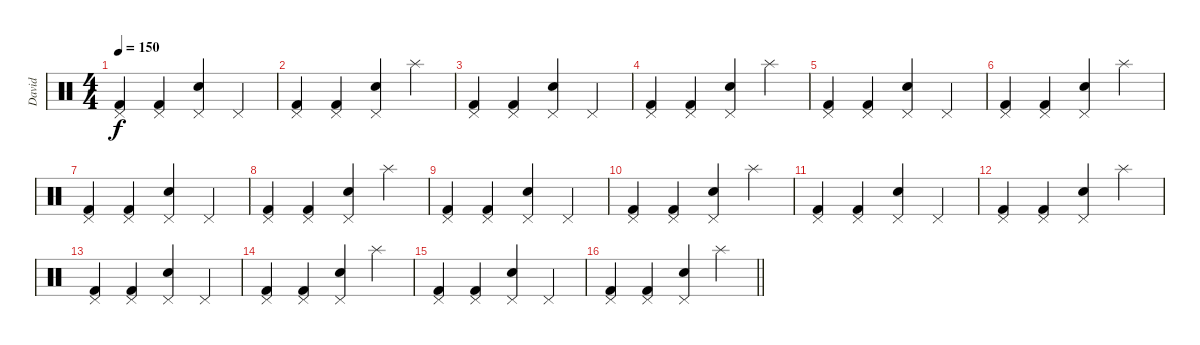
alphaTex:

\track ("David" "David") {instrument percussion}
\staff {score}
\articulation defaults
\ts (4 4)
\tempo 150
\clef neutral
\ks c
("Pedal Hi-Hat (hit)" "Kick (hit) 2").4{dy f} ("Pedal Hi-Hat (hit)" "Kick (hit) 2").4 ("Pedal Hi-Hat (hit)" "Hand Clap (hit)").4 "Pedal Hi-Hat (hit)".4 |
("Pedal Hi-Hat (hit)" "Kick (hit) 2").4 ("Pedal Hi-Hat (hit)" "Kick (hit) 2").4 ("Pedal Hi-Hat (hit)" "Hand Clap (hit)").4 "Splash (hit)".4 |
("Pedal Hi-Hat (hit)" "Kick (hit) 2").4 ("Pedal Hi-Hat (hit)" "Kick (hit) 2").4 ("Pedal Hi-Hat (hit)" "Hand Clap (hit)").4 "Pedal Hi-Hat (hit)".4 |
("Pedal Hi-Hat (hit)" "Kick (hit) 2").4 ("Pedal Hi-Hat (hit)" "Kick (hit) 2").4 ("Pedal Hi-Hat (hit)" "Hand Clap (hit)").4 "Splash (hit)".4 |
("Pedal Hi-Hat (hit)" "Kick (hit) 2").4 ("Pedal Hi-Hat (hit)" "Kick (hit) 2").4 ("Pedal Hi-Hat (hit)" "Hand Clap (hit)").4 "Pedal Hi-Hat (hit)".4 |
("Pedal Hi-Hat (hit)" "Kick (hit) 2").4 ("Pedal Hi-Hat (hit)" "Kick (hit) 2").4 ("Pedal Hi-Hat (hit)" "Hand Clap (hit)").4 "Splash (hit)".4 |
("Pedal Hi-Hat (hit)" "Kick (hit) 2").4 ("Pedal Hi-Hat (hit)" "Kick (hit) 2").4 ("Pedal Hi-Hat (hit)" "Hand Clap (hit)").4 "Pedal Hi-Hat (hit)".4 |
("Pedal Hi-Hat (hit)" "Kick (hit) 2").4 ("Pedal Hi-Hat (hit)" "Kick (hit) 2").4 ("Pedal Hi-Hat (hit)" "Hand Clap (hit)").4 "Splash (hit)".4 |
("Pedal Hi-Hat (hit)" "Kick (hit) 2").4 ("Pedal Hi-Hat (hit)" "Kick (hit) 2").4 ("Pedal Hi-Hat (hit)" "Hand Clap (hit)").4 "Pedal Hi-Hat (hit)".4 |
("Pedal Hi-Hat (hit)" "Kick (hit) 2").4 ("Pedal Hi-Hat (hit)" "Kick (hit) 2").4 ("Pedal Hi-Hat (hit)" "Hand Clap (hit)").4 "Splash (hit)".4 |
("Pedal Hi-Hat (hit)" "Kick (hit) 2").4 ("Pedal Hi-Hat (hit)" "Kick (hit) 2").4 ("Pedal Hi-Hat (hit)" "Hand Clap (hit)").4 "Pedal Hi-Hat (hit)".4 |
("Pedal Hi-Hat (hit)" "Kick (hit) 2").4 ("Pedal Hi-Hat (hit)" "Kick (hit) 2").4 ("Pedal Hi-Hat (hit)" "Hand Clap (hit)").4 "Splash (hit)".4 |
("Pedal Hi-Hat (hit)" "Kick (hit) 2").4 ("Pedal Hi-Hat (hit)" "Kick (hit) 2").4 ("Pedal Hi-Hat (hit)" "Hand Clap (hit)").4 "Pedal Hi-Hat (hit)".4 |
("Pedal Hi-Hat (hit)" "Kick (hit) 2").4 ("Pedal Hi-Hat (hit)" "Kick (hit) 2").4 ("Pedal Hi-Hat (hit)" "Hand Clap (hit)").4 "Splash (hit)".4 |
("Pedal Hi-Hat (hit)" "Kick (hit) 2").4 ("Pedal Hi-Hat (hit)" "Kick (hit) 2").4 ("Pedal Hi-Hat (hit)" "Hand Clap (hit)").4 "Pedal Hi-Hat (hit)".4 |
\barLineRight lightlight
("Pedal Hi-Hat (hit)" "Kick (hit) 2").4 ("Pedal Hi-Hat (hit)" "Kick (hit) 2").4 ("Pedal Hi-Hat (hit)" "Hand Clap (hit)").4 "Splash (hit)".4
